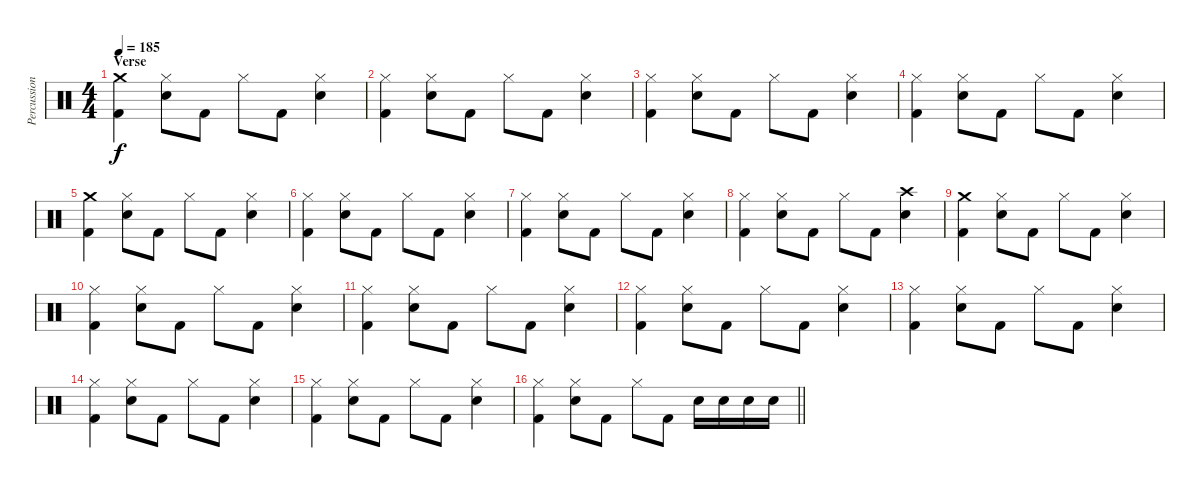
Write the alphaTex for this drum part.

\track ("Percussions" "Percussion") {instrument percussion}
\staff {score}
\articulation defaults
\ts (4 4)
\section ("" "Verse")
\tempo 185
\clef neutral
\ks c
("Crash medium (hit)" "Kick (hit) 2").4{dy f} ("Hi-Hat (closed)" "Electric Snare (hit)").8 "Kick (hit) 2".8 "Hi-Hat (closed)".8 "Kick (hit) 2".8 ("Hi-Hat (closed)" "Electric Snare (hit)").4 |
("Hi-Hat (closed)" "Kick (hit) 2").4 ("Hi-Hat (closed)" "Electric Snare (hit)").8 "Kick (hit) 2".8 "Hi-Hat (closed)".8 "Kick (hit) 2".8 ("Hi-Hat (closed)" "Electric Snare (hit)").4 |
("Hi-Hat (closed)" "Kick (hit) 2").4 ("Hi-Hat (closed)" "Electric Snare (hit)").8 "Kick (hit) 2".8 "Hi-Hat (closed)".8 "Kick (hit) 2".8 ("Hi-Hat (closed)" "Electric Snare (hit)").4 |
("Hi-Hat (closed)" "Kick (hit) 2").4 ("Hi-Hat (closed)" "Electric Snare (hit)").8 "Kick (hit) 2".8 "Hi-Hat (closed)".8 "Kick (hit) 2".8 ("Hi-Hat (closed)" "Electric Snare (hit)").4 |
("Crash medium (hit)" "Kick (hit) 2").4 ("Hi-Hat (closed)" "Electric Snare (hit)").8 "Kick (hit) 2".8 "Hi-Hat (closed)".8 "Kick (hit) 2".8 ("Hi-Hat (closed)" "Electric Snare (hit)").4 |
("Hi-Hat (closed)" "Kick (hit) 2").4 ("Hi-Hat (closed)" "Electric Snare (hit)").8 "Kick (hit) 2".8 "Hi-Hat (closed)".8 "Kick (hit) 2".8 ("Hi-Hat (closed)" "Electric Snare (hit)").4 |
("Hi-Hat (closed)" "Kick (hit) 2").4 ("Hi-Hat (closed)" "Electric Snare (hit)").8 "Kick (hit) 2".8 "Hi-Hat (closed)".8 "Kick (hit) 2".8 ("Hi-Hat (closed)" "Electric Snare (hit)").4 |
("Hi-Hat (closed)" "Kick (hit) 2").4 ("Hi-Hat (closed)" "Electric Snare (hit)").8 "Kick (hit) 2".8 "Hi-Hat (closed)".8 "Kick (hit) 2".8 ("Crash high (hit)" "Electric Snare (hit)").4 |
("Crash medium (hit)" "Kick (hit) 2").4 ("Hi-Hat (closed)" "Electric Snare (hit)").8 "Kick (hit) 2".8 "Hi-Hat (closed)".8 "Kick (hit) 2".8 ("Hi-Hat (closed)" "Electric Snare (hit)").4 |
("Hi-Hat (closed)" "Kick (hit) 2").4 ("Hi-Hat (closed)" "Electric Snare (hit)").8 "Kick (hit) 2".8 "Hi-Hat (closed)".8 "Kick (hit) 2".8 ("Hi-Hat (closed)" "Electric Snare (hit)").4 |
("Hi-Hat (closed)" "Kick (hit) 2").4 ("Hi-Hat (closed)" "Electric Snare (hit)").8 "Kick (hit) 2".8 "Hi-Hat (closed)".8 "Kick (hit) 2".8 ("Hi-Hat (closed)" "Electric Snare (hit)").4 |
("Hi-Hat (closed)" "Kick (hit) 2").4 ("Hi-Hat (closed)" "Electric Snare (hit)").8 "Kick (hit) 2".8 "Hi-Hat (closed)".8 "Kick (hit) 2".8 ("Hi-Hat (closed)" "Electric Snare (hit)").4 |
("Hi-Hat (closed)" "Kick (hit) 2").4 ("Hi-Hat (closed)" "Electric Snare (hit)").8 "Kick (hit) 2".8 "Hi-Hat (closed)".8 "Kick (hit) 2".8 ("Hi-Hat (closed)" "Electric Snare (hit)").4 |
("Hi-Hat (closed)" "Kick (hit) 2").4 ("Hi-Hat (closed)" "Electric Snare (hit)").8 "Kick (hit) 2".8 "Hi-Hat (closed)".8 "Kick (hit) 2".8 ("Hi-Hat (closed)" "Electric Snare (hit)").4 |
("Hi-Hat (closed)" "Kick (hit) 2").4 ("Hi-Hat (closed)" "Electric Snare (hit)").8 "Kick (hit) 2".8 "Hi-Hat (closed)".8 "Kick (hit) 2".8 ("Hi-Hat (closed)" "Electric Snare (hit)").4 |
\barLineRight lightlight
("Hi-Hat (closed)" "Kick (hit) 2").4 ("Hi-Hat (closed)" "Electric Snare (hit)").8 "Kick (hit) 2".8 "Hi-Hat (closed)".8 "Kick (hit) 2".8 "Electric Snare (hit)".16 "Electric Snare (hit)".16 "Electric Snare (hit)".16 "Electric Snare (hit)".16
